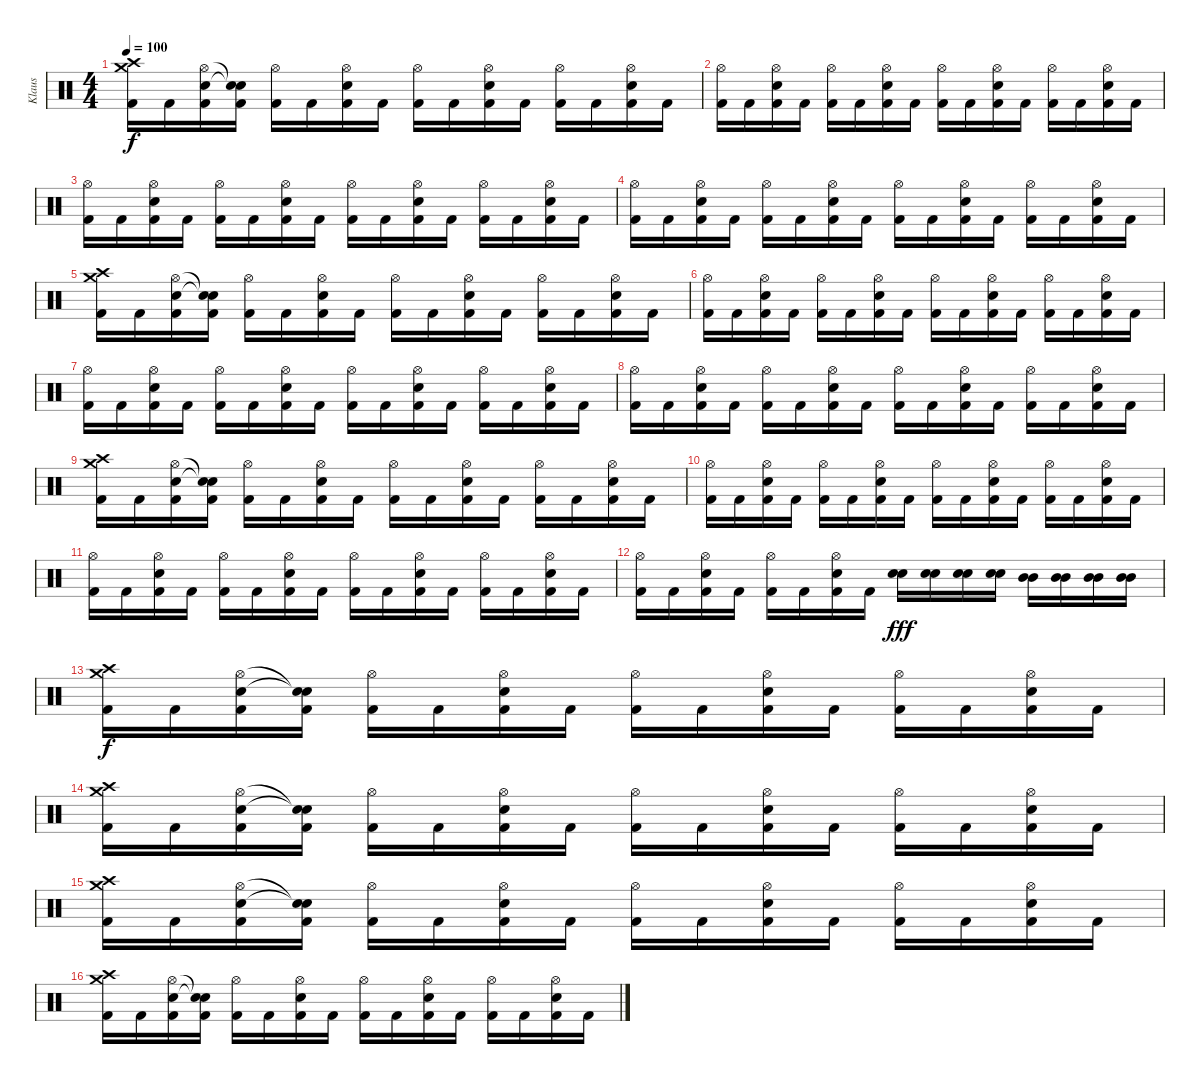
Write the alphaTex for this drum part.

\track ("Klaus" "Klaus") {instrument percussion}
\staff {score}
\articulation defaults
\ts (4 4)
\tempo 100
\clef neutral
\ks c
("Crash high (hit)" "Crash medium (hit)" "Kick (hit) 2").16{dy f} "Kick (hit) 2".16 ("Hi-Hat (open)" "Electric Snare (hit)" "Kick (hit) 2").16 ("Snare (hit)"{t} "Snare (hit)"{t} "Kick (hit) 2").16 ("Hi-Hat (open)" "Kick (hit) 2").16 "Kick (hit) 2".16 ("Hi-Hat (open)" "Electric Snare (hit)" "Kick (hit) 2").16 "Kick (hit) 2".16 ("Hi-Hat (open)" "Kick (hit) 2").16 "Kick (hit) 2".16 ("Hi-Hat (open)" "Electric Snare (hit)" "Kick (hit) 2").16 "Kick (hit) 2".16 ("Hi-Hat (open)" "Kick (hit) 2").16 "Kick (hit) 2".16 ("Hi-Hat (open)" "Electric Snare (hit)" "Kick (hit) 2").16 "Kick (hit) 2".16 |
("Hi-Hat (open)" "Kick (hit) 2").16 "Kick (hit) 2".16 ("Hi-Hat (open)" "Electric Snare (hit)" "Kick (hit) 2").16 "Kick (hit) 2".16 ("Hi-Hat (open)" "Kick (hit) 2").16 "Kick (hit) 2".16 ("Hi-Hat (open)" "Electric Snare (hit)" "Kick (hit) 2").16 "Kick (hit) 2".16 ("Hi-Hat (open)" "Kick (hit) 2").16 "Kick (hit) 2".16 ("Hi-Hat (open)" "Electric Snare (hit)" "Kick (hit) 2").16 "Kick (hit) 2".16 ("Hi-Hat (open)" "Kick (hit) 2").16 "Kick (hit) 2".16 ("Hi-Hat (open)" "Electric Snare (hit)" "Kick (hit) 2").16 "Kick (hit) 2".16 |
("Hi-Hat (open)" "Kick (hit) 2").16 "Kick (hit) 2".16 ("Hi-Hat (open)" "Electric Snare (hit)" "Kick (hit) 2").16 "Kick (hit) 2".16 ("Hi-Hat (open)" "Kick (hit) 2").16 "Kick (hit) 2".16 ("Hi-Hat (open)" "Electric Snare (hit)" "Kick (hit) 2").16 "Kick (hit) 2".16 ("Hi-Hat (open)" "Kick (hit) 2").16 "Kick (hit) 2".16 ("Hi-Hat (open)" "Electric Snare (hit)" "Kick (hit) 2").16 "Kick (hit) 2".16 ("Hi-Hat (open)" "Kick (hit) 2").16 "Kick (hit) 2".16 ("Hi-Hat (open)" "Electric Snare (hit)" "Kick (hit) 2").16 "Kick (hit) 2".16 |
("Hi-Hat (open)" "Kick (hit) 2").16 "Kick (hit) 2".16 ("Hi-Hat (open)" "Electric Snare (hit)" "Kick (hit) 2").16 "Kick (hit) 2".16 ("Hi-Hat (open)" "Kick (hit) 2").16 "Kick (hit) 2".16 ("Hi-Hat (open)" "Electric Snare (hit)" "Kick (hit) 2").16 "Kick (hit) 2".16 ("Hi-Hat (open)" "Kick (hit) 2").16 "Kick (hit) 2".16 ("Hi-Hat (open)" "Electric Snare (hit)" "Kick (hit) 2").16 "Kick (hit) 2".16 ("Hi-Hat (open)" "Kick (hit) 2").16 "Kick (hit) 2".16 ("Hi-Hat (open)" "Electric Snare (hit)" "Kick (hit) 2").16 "Kick (hit) 2".16 |
("Crash high (hit)" "Crash medium (hit)" "Kick (hit) 2").16 "Kick (hit) 2".16 ("Hi-Hat (open)" "Electric Snare (hit)" "Kick (hit) 2").16 ("Snare (hit)"{t} "Snare (hit)"{t} "Kick (hit) 2").16 ("Hi-Hat (open)" "Kick (hit) 2").16 "Kick (hit) 2".16 ("Hi-Hat (open)" "Electric Snare (hit)" "Kick (hit) 2").16 "Kick (hit) 2".16 ("Hi-Hat (open)" "Kick (hit) 2").16 "Kick (hit) 2".16 ("Hi-Hat (open)" "Electric Snare (hit)" "Kick (hit) 2").16 "Kick (hit) 2".16 ("Hi-Hat (open)" "Kick (hit) 2").16 "Kick (hit) 2".16 ("Hi-Hat (open)" "Electric Snare (hit)" "Kick (hit) 2").16 "Kick (hit) 2".16 |
("Hi-Hat (open)" "Kick (hit) 2").16 "Kick (hit) 2".16 ("Hi-Hat (open)" "Electric Snare (hit)" "Kick (hit) 2").16 "Kick (hit) 2".16 ("Hi-Hat (open)" "Kick (hit) 2").16 "Kick (hit) 2".16 ("Hi-Hat (open)" "Electric Snare (hit)" "Kick (hit) 2").16 "Kick (hit) 2".16 ("Hi-Hat (open)" "Kick (hit) 2").16 "Kick (hit) 2".16 ("Hi-Hat (open)" "Electric Snare (hit)" "Kick (hit) 2").16 "Kick (hit) 2".16 ("Hi-Hat (open)" "Kick (hit) 2").16 "Kick (hit) 2".16 ("Hi-Hat (open)" "Electric Snare (hit)" "Kick (hit) 2").16 "Kick (hit) 2".16 |
("Hi-Hat (open)" "Kick (hit) 2").16 "Kick (hit) 2".16 ("Hi-Hat (open)" "Electric Snare (hit)" "Kick (hit) 2").16 "Kick (hit) 2".16 ("Hi-Hat (open)" "Kick (hit) 2").16 "Kick (hit) 2".16 ("Hi-Hat (open)" "Electric Snare (hit)" "Kick (hit) 2").16 "Kick (hit) 2".16 ("Hi-Hat (open)" "Kick (hit) 2").16 "Kick (hit) 2".16 ("Hi-Hat (open)" "Electric Snare (hit)" "Kick (hit) 2").16 "Kick (hit) 2".16 ("Hi-Hat (open)" "Kick (hit) 2").16 "Kick (hit) 2".16 ("Hi-Hat (open)" "Electric Snare (hit)" "Kick (hit) 2").16 "Kick (hit) 2".16 |
("Hi-Hat (open)" "Kick (hit) 2").16 "Kick (hit) 2".16 ("Hi-Hat (open)" "Electric Snare (hit)" "Kick (hit) 2").16 "Kick (hit) 2".16 ("Hi-Hat (open)" "Kick (hit) 2").16 "Kick (hit) 2".16 ("Hi-Hat (open)" "Electric Snare (hit)" "Kick (hit) 2").16 "Kick (hit) 2".16 ("Hi-Hat (open)" "Kick (hit) 2").16 "Kick (hit) 2".16 ("Hi-Hat (open)" "Electric Snare (hit)" "Kick (hit) 2").16 "Kick (hit) 2".16 ("Hi-Hat (open)" "Kick (hit) 2").16 "Kick (hit) 2".16 ("Hi-Hat (open)" "Electric Snare (hit)" "Kick (hit) 2").16 "Kick (hit) 2".16 |
("Crash high (hit)" "Crash medium (hit)" "Kick (hit) 2").16 "Kick (hit) 2".16 ("Hi-Hat (open)" "Electric Snare (hit)" "Kick (hit) 2").16 ("Snare (hit)"{t} "Snare (hit)"{t} "Kick (hit) 2").16 ("Hi-Hat (open)" "Kick (hit) 2").16 "Kick (hit) 2".16 ("Hi-Hat (open)" "Electric Snare (hit)" "Kick (hit) 2").16 "Kick (hit) 2".16 ("Hi-Hat (open)" "Kick (hit) 2").16 "Kick (hit) 2".16 ("Hi-Hat (open)" "Electric Snare (hit)" "Kick (hit) 2").16 "Kick (hit) 2".16 ("Hi-Hat (open)" "Kick (hit) 2").16 "Kick (hit) 2".16 ("Hi-Hat (open)" "Electric Snare (hit)" "Kick (hit) 2").16 "Kick (hit) 2".16 |
("Hi-Hat (open)" "Kick (hit) 2").16 "Kick (hit) 2".16 ("Hi-Hat (open)" "Electric Snare (hit)" "Kick (hit) 2").16 "Kick (hit) 2".16 ("Hi-Hat (open)" "Kick (hit) 2").16 "Kick (hit) 2".16 ("Hi-Hat (open)" "Electric Snare (hit)" "Kick (hit) 2").16 "Kick (hit) 2".16 ("Hi-Hat (open)" "Kick (hit) 2").16 "Kick (hit) 2".16 ("Hi-Hat (open)" "Electric Snare (hit)" "Kick (hit) 2").16 "Kick (hit) 2".16 ("Hi-Hat (open)" "Kick (hit) 2").16 "Kick (hit) 2".16 ("Hi-Hat (open)" "Electric Snare (hit)" "Kick (hit) 2").16 "Kick (hit) 2".16 |
("Hi-Hat (open)" "Kick (hit) 2").16 "Kick (hit) 2".16 ("Hi-Hat (open)" "Electric Snare (hit)" "Kick (hit) 2").16 "Kick (hit) 2".16 ("Hi-Hat (open)" "Kick (hit) 2").16 "Kick (hit) 2".16 ("Hi-Hat (open)" "Electric Snare (hit)" "Kick (hit) 2").16 "Kick (hit) 2".16 ("Hi-Hat (open)" "Kick (hit) 2").16 "Kick (hit) 2".16 ("Hi-Hat (open)" "Electric Snare (hit)" "Kick (hit) 2").16 "Kick (hit) 2".16 ("Hi-Hat (open)" "Kick (hit) 2").16 "Kick (hit) 2".16 ("Hi-Hat (open)" "Electric Snare (hit)" "Kick (hit) 2").16 "Kick (hit) 2".16 |
("Hi-Hat (open)" "Kick (hit) 2").16 "Kick (hit) 2".16 ("Hi-Hat (open)" "Electric Snare (hit)" "Kick (hit) 2").16 "Kick (hit) 2".16 ("Hi-Hat (open)" "Kick (hit) 2").16 "Kick (hit) 2".16 ("Hi-Hat (open)" "Electric Snare (hit)" "Kick (hit) 2").16 "Kick (hit) 2".16 ("Electric Snare (hit)" "Electric Snare (hit)").16{dy fff} ("Electric Snare (hit)" "Electric Snare (hit)").16 ("Electric Snare (hit)" "Electric Snare (hit)").16 ("Electric Snare (hit)" "Electric Snare (hit)").16 ("Mid Tom (hit)" "Mid Tom (hit)").16 ("Mid Tom (hit)" "Mid Tom (hit)").16 ("Mid Tom (hit)" "Mid Tom (hit)").16 ("Mid Tom (hit)" "Mid Tom (hit)").16 |
("Crash high (hit)" "Crash medium (hit)" "Kick (hit) 2").16{dy f} "Kick (hit) 2".16 ("Hi-Hat (open)" "Electric Snare (hit)" "Kick (hit) 2").16 ("Snare (hit)"{t} "Snare (hit)"{t} "Kick (hit) 2").16 ("Hi-Hat (open)" "Kick (hit) 2").16 "Kick (hit) 2".16 ("Hi-Hat (open)" "Electric Snare (hit)" "Kick (hit) 2").16 "Kick (hit) 2".16 ("Hi-Hat (open)" "Kick (hit) 2").16 "Kick (hit) 2".16 ("Hi-Hat (open)" "Electric Snare (hit)" "Kick (hit) 2").16 "Kick (hit) 2".16 ("Hi-Hat (open)" "Kick (hit) 2").16 "Kick (hit) 2".16 ("Hi-Hat (open)" "Electric Snare (hit)" "Kick (hit) 2").16 "Kick (hit) 2".16 |
("Crash high (hit)" "Crash medium (hit)" "Kick (hit) 2").16 "Kick (hit) 2".16 ("Hi-Hat (open)" "Electric Snare (hit)" "Kick (hit) 2").16 ("Snare (hit)"{t} "Snare (hit)"{t} "Kick (hit) 2").16 ("Hi-Hat (open)" "Kick (hit) 2").16 "Kick (hit) 2".16 ("Hi-Hat (open)" "Electric Snare (hit)" "Kick (hit) 2").16 "Kick (hit) 2".16 ("Hi-Hat (open)" "Kick (hit) 2").16 "Kick (hit) 2".16 ("Hi-Hat (open)" "Electric Snare (hit)" "Kick (hit) 2").16 "Kick (hit) 2".16 ("Hi-Hat (open)" "Kick (hit) 2").16 "Kick (hit) 2".16 ("Hi-Hat (open)" "Electric Snare (hit)" "Kick (hit) 2").16 "Kick (hit) 2".16 |
("Crash high (hit)" "Crash medium (hit)" "Kick (hit) 2").16 "Kick (hit) 2".16 ("Hi-Hat (open)" "Electric Snare (hit)" "Kick (hit) 2").16 ("Snare (hit)"{t} "Snare (hit)"{t} "Kick (hit) 2").16 ("Hi-Hat (open)" "Kick (hit) 2").16 "Kick (hit) 2".16 ("Hi-Hat (open)" "Electric Snare (hit)" "Kick (hit) 2").16 "Kick (hit) 2".16 ("Hi-Hat (open)" "Kick (hit) 2").16 "Kick (hit) 2".16 ("Hi-Hat (open)" "Electric Snare (hit)" "Kick (hit) 2").16 "Kick (hit) 2".16 ("Hi-Hat (open)" "Kick (hit) 2").16 "Kick (hit) 2".16 ("Hi-Hat (open)" "Electric Snare (hit)" "Kick (hit) 2").16 "Kick (hit) 2".16 |
("Crash high (hit)" "Crash medium (hit)" "Kick (hit) 2").16 "Kick (hit) 2".16 ("Hi-Hat (open)" "Electric Snare (hit)" "Kick (hit) 2").16 ("Snare (hit)"{t} "Snare (hit)"{t} "Kick (hit) 2").16 ("Hi-Hat (open)" "Kick (hit) 2").16 "Kick (hit) 2".16 ("Hi-Hat (open)" "Electric Snare (hit)" "Kick (hit) 2").16 "Kick (hit) 2".16 ("Hi-Hat (open)" "Kick (hit) 2").16 "Kick (hit) 2".16 ("Hi-Hat (open)" "Electric Snare (hit)" "Kick (hit) 2").16 "Kick (hit) 2".16 ("Hi-Hat (open)" "Kick (hit) 2").16 "Kick (hit) 2".16 ("Hi-Hat (open)" "Electric Snare (hit)" "Kick (hit) 2").16 "Kick (hit) 2".16
